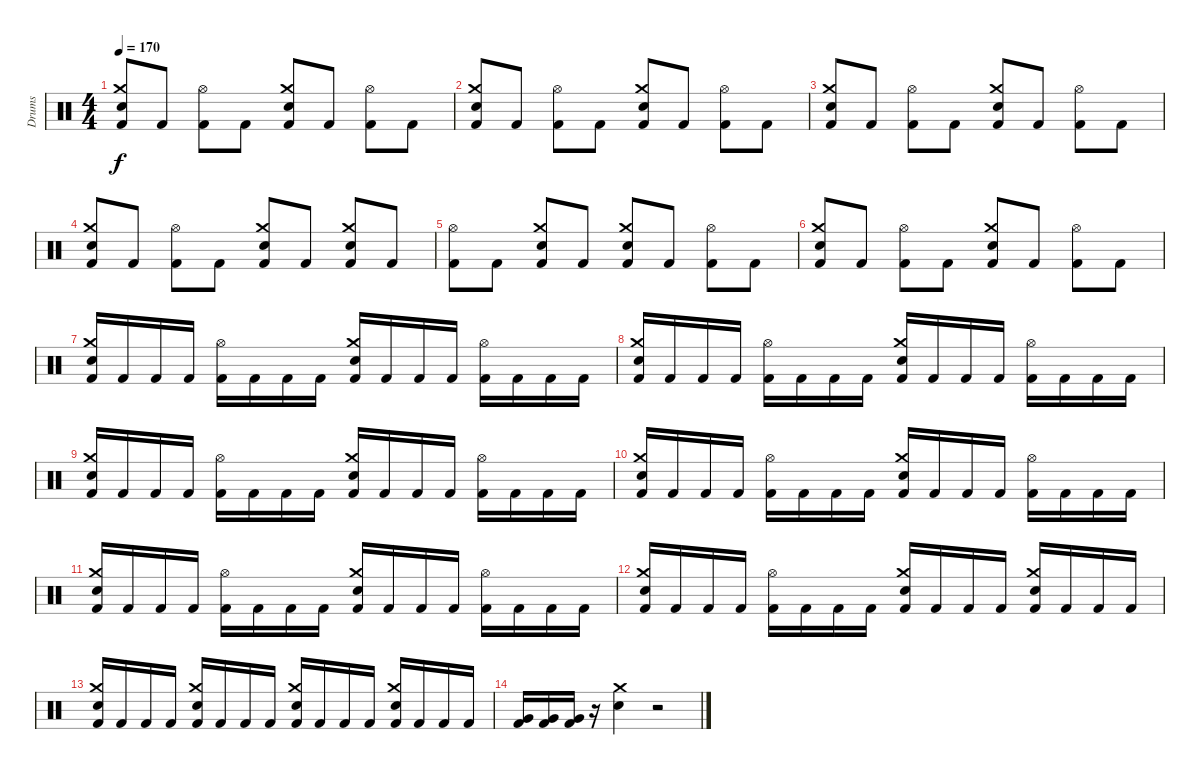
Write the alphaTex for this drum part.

\track ("Drums" "Drums") {instrument percussion}
\staff {score}
\articulation defaults
\ts (4 4)
\tempo 170
\clef neutral
\ks c
("Snare (hit) 2" "Crash medium (hit)" "Kick (hit) 2").8{dy f} "Kick (hit) 2".8 ("Hi-Hat (open)" "Kick (hit) 2").8 "Kick (hit) 2".8 ("Snare (hit) 2" "Crash medium (hit)" "Kick (hit) 2").8 "Kick (hit) 2".8 ("Hi-Hat (open)" "Kick (hit) 2").8 "Kick (hit) 2".8 |
("Snare (hit) 2" "Crash medium (hit)" "Kick (hit) 2").8 "Kick (hit) 2".8 ("Hi-Hat (open)" "Kick (hit) 2").8 "Kick (hit) 2".8 ("Snare (hit) 2" "Crash medium (hit)" "Kick (hit) 2").8 "Kick (hit) 2".8 ("Hi-Hat (open)" "Kick (hit) 2").8 "Kick (hit) 2".8 |
("Snare (hit) 2" "Crash medium (hit)" "Kick (hit) 2").8 "Kick (hit) 2".8 ("Hi-Hat (open)" "Kick (hit) 2").8 "Kick (hit) 2".8 ("Snare (hit) 2" "Crash medium (hit)" "Kick (hit) 2").8 "Kick (hit) 2".8 ("Hi-Hat (open)" "Kick (hit) 2").8 "Kick (hit) 2".8 |
("Snare (hit) 2" "Crash medium (hit)" "Kick (hit) 2").8 "Kick (hit) 2".8 ("Hi-Hat (open)" "Kick (hit) 2").8 "Kick (hit) 2".8 ("Snare (hit) 2" "Crash medium (hit)" "Kick (hit) 2").8 "Kick (hit) 2".8 ("Snare (hit) 2" "Crash medium (hit)" "Kick (hit) 2").8 "Kick (hit) 2".8 |
("Hi-Hat (open)" "Kick (hit) 2").8 "Kick (hit) 2".8 ("Snare (hit) 2" "Crash medium (hit)" "Kick (hit) 2").8 "Kick (hit) 2".8 ("Snare (hit) 2" "Crash medium (hit)" "Kick (hit) 2").8 "Kick (hit) 2".8 ("Hi-Hat (open)" "Kick (hit) 2").8 "Kick (hit) 2".8 |
("Snare (hit) 2" "Crash medium (hit)" "Kick (hit) 2").8 "Kick (hit) 2".8 ("Hi-Hat (open)" "Kick (hit) 2").8 "Kick (hit) 2".8 ("Snare (hit) 2" "Crash medium (hit)" "Kick (hit) 2").8 "Kick (hit) 2".8 ("Hi-Hat (open)" "Kick (hit) 2").8 "Kick (hit) 2".8 |
("Snare (hit) 2" "Crash medium (hit)" "Kick (hit) 2").16 "Kick (hit) 2".16 "Kick (hit) 2".16 "Kick (hit) 2".16 ("Hi-Hat (open)" "Kick (hit) 2").16 "Kick (hit) 2".16 "Kick (hit) 2".16 "Kick (hit) 2".16 ("Snare (hit) 2" "Crash medium (hit)" "Kick (hit) 2").16 "Kick (hit) 2".16 "Kick (hit) 2".16 "Kick (hit) 2".16 ("Hi-Hat (open)" "Kick (hit) 2").16 "Kick (hit) 2".16 "Kick (hit) 2".16 "Kick (hit) 2".16 |
("Snare (hit) 2" "Crash medium (hit)" "Kick (hit) 2").16 "Kick (hit) 2".16 "Kick (hit) 2".16 "Kick (hit) 2".16 ("Hi-Hat (open)" "Kick (hit) 2").16 "Kick (hit) 2".16 "Kick (hit) 2".16 "Kick (hit) 2".16 ("Snare (hit) 2" "Crash medium (hit)" "Kick (hit) 2").16 "Kick (hit) 2".16 "Kick (hit) 2".16 "Kick (hit) 2".16 ("Hi-Hat (open)" "Kick (hit) 2").16 "Kick (hit) 2".16 "Kick (hit) 2".16 "Kick (hit) 2".16 |
("Snare (hit) 2" "Crash medium (hit)" "Kick (hit) 2").16 "Kick (hit) 2".16 "Kick (hit) 2".16 "Kick (hit) 2".16 ("Hi-Hat (open)" "Kick (hit) 2").16 "Kick (hit) 2".16 "Kick (hit) 2".16 "Kick (hit) 2".16 ("Snare (hit) 2" "Crash medium (hit)" "Kick (hit) 2").16 "Kick (hit) 2".16 "Kick (hit) 2".16 "Kick (hit) 2".16 ("Hi-Hat (open)" "Kick (hit) 2").16 "Kick (hit) 2".16 "Kick (hit) 2".16 "Kick (hit) 2".16 |
("Snare (hit) 2" "Crash medium (hit)" "Kick (hit) 2").16 "Kick (hit) 2".16 "Kick (hit) 2".16 "Kick (hit) 2".16 ("Hi-Hat (open)" "Kick (hit) 2").16 "Kick (hit) 2".16 "Kick (hit) 2".16 "Kick (hit) 2".16 ("Snare (hit) 2" "Crash medium (hit)" "Kick (hit) 2").16 "Kick (hit) 2".16 "Kick (hit) 2".16 "Kick (hit) 2".16 ("Hi-Hat (open)" "Kick (hit) 2").16 "Kick (hit) 2".16 "Kick (hit) 2".16 "Kick (hit) 2".16 |
("Snare (hit) 2" "Crash medium (hit)" "Kick (hit) 2").16 "Kick (hit) 2".16 "Kick (hit) 2".16 "Kick (hit) 2".16 ("Hi-Hat (open)" "Kick (hit) 2").16 "Kick (hit) 2".16 "Kick (hit) 2".16 "Kick (hit) 2".16 ("Snare (hit) 2" "Crash medium (hit)" "Kick (hit) 2").16 "Kick (hit) 2".16 "Kick (hit) 2".16 "Kick (hit) 2".16 ("Hi-Hat (open)" "Kick (hit) 2").16 "Kick (hit) 2".16 "Kick (hit) 2".16 "Kick (hit) 2".16 |
("Snare (hit) 2" "Crash medium (hit)" "Kick (hit) 2").16 "Kick (hit) 2".16 "Kick (hit) 2".16 "Kick (hit) 2".16 ("Hi-Hat (open)" "Kick (hit) 2").16 "Kick (hit) 2".16 "Kick (hit) 2".16 "Kick (hit) 2".16 ("Snare (hit) 2" "Crash medium (hit)" "Kick (hit) 2").16 "Kick (hit) 2".16 "Kick (hit) 2".16 "Kick (hit) 2".16 ("Snare (hit) 2" "Crash medium (hit)" "Kick (hit) 2").16 "Kick (hit) 2".16 "Kick (hit) 2".16 "Kick (hit) 2".16 |
("Snare (hit) 2" "Crash medium (hit)" "Kick (hit) 2").16 "Kick (hit) 2".16 "Kick (hit) 2".16 "Kick (hit) 2".16 ("Snare (hit) 2" "Crash medium (hit)" "Kick (hit) 2").16 "Kick (hit) 2".16 "Kick (hit) 2".16 "Kick (hit) 2".16 ("Snare (hit) 2" "Crash medium (hit)" "Kick (hit) 2").16 "Kick (hit) 2".16 "Kick (hit) 2".16 "Kick (hit) 2".16 ("Snare (hit) 2" "Crash medium (hit)" "Kick (hit) 2").16 "Kick (hit) 2".16 "Kick (hit) 2".16 "Kick (hit) 2".16 |
("Very Low Tom (hit)" "Kick (hit) 2").16 ("Very Low Tom (hit)" "Kick (hit) 2").16 ("Very Low Tom (hit)" "Kick (hit) 2").16 r.16 ("Snare (hit) 2" "Crash medium (hit)").4 r.2
